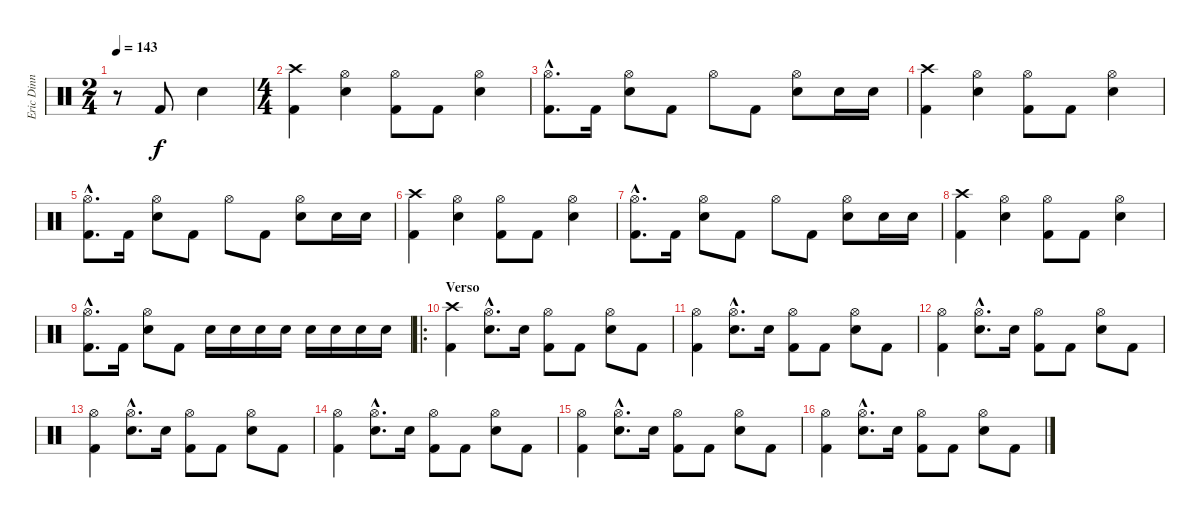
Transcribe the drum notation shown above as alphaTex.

\track ("Eric Dinn" "Eric Dinn") {instrument percussion}
\staff {score}
\articulation defaults
\ts (2 4)
\tempo 143
\clef neutral
\ks c
r.8{dy f} "Kick (hit) 2".8 "Snare (hit) 2".4 |
\ts (4 4)
("Crash high (hit)" "Kick (hit) 2").4 ("Hi-Hat (open)" "Snare (hit) 2").4 ("Hi-Hat (open)" "Kick (hit) 2").8 "Kick (hit) 2".8 ("Hi-Hat (open)" "Snare (hit) 2").4 |
("Hi-Hat (open)"{hac} "Kick (hit) 2"{hac}).8{d} "Kick (hit) 2".16 ("Hi-Hat (open)" "Snare (hit) 2").8 "Kick (hit) 2".8 "Hi-Hat (open)".8 "Kick (hit) 2".8 ("Hi-Hat (open)" "Snare (hit) 2").8 "Snare (hit) 2".16 "Snare (hit) 2".16 |
("Crash high (hit)" "Kick (hit) 2").4 ("Hi-Hat (open)" "Snare (hit) 2").4 ("Hi-Hat (open)" "Kick (hit) 2").8 "Kick (hit) 2".8 ("Hi-Hat (open)" "Snare (hit) 2").4 |
("Hi-Hat (open)"{hac} "Kick (hit) 2"{hac}).8{d} "Kick (hit) 2".16 ("Hi-Hat (open)" "Snare (hit) 2").8 "Kick (hit) 2".8 "Hi-Hat (open)".8 "Kick (hit) 2".8 ("Hi-Hat (open)" "Snare (hit) 2").8 "Snare (hit) 2".16 "Snare (hit) 2".16 |
("Crash high (hit)" "Kick (hit) 2").4 ("Hi-Hat (open)" "Snare (hit) 2").4 ("Hi-Hat (open)" "Kick (hit) 2").8 "Kick (hit) 2".8 ("Hi-Hat (open)" "Snare (hit) 2").4 |
("Hi-Hat (open)"{hac} "Kick (hit) 2"{hac}).8{d} "Kick (hit) 2".16 ("Hi-Hat (open)" "Snare (hit) 2").8 "Kick (hit) 2".8 "Hi-Hat (open)".8 "Kick (hit) 2".8 ("Hi-Hat (open)" "Snare (hit) 2").8 "Snare (hit) 2".16 "Snare (hit) 2".16 |
("Crash high (hit)" "Kick (hit) 2").4 ("Hi-Hat (open)" "Snare (hit) 2").4 ("Hi-Hat (open)" "Kick (hit) 2").8 "Kick (hit) 2".8 ("Hi-Hat (open)" "Snare (hit) 2").4 |
("Hi-Hat (open)"{hac} "Kick (hit) 2"{hac}).8{d} "Kick (hit) 2".16 ("Hi-Hat (open)" "Snare (hit) 2").8 "Kick (hit) 2".8 "Snare (hit) 2".16 "Snare (hit) 2".16 "Snare (hit) 2".16 "Snare (hit) 2".16 "Snare (hit) 2".16 "Snare (hit) 2".16 "Snare (hit) 2".16 "Snare (hit) 2".16 |
\ro
\section ("" "Verso")
("Crash high (hit)" "Kick (hit) 2").4 ("Hi-Hat (open)"{hac} "Snare (hit) 2"{hac}).8{d} "Snare (hit) 2".16 ("Hi-Hat (open)" "Kick (hit) 2").8 "Kick (hit) 2".8 ("Hi-Hat (open)" "Snare (hit) 2").8 "Kick (hit) 2".8 |
("Hi-Hat (open)" "Kick (hit) 2").4 ("Hi-Hat (open)"{hac} "Snare (hit) 2"{hac}).8{d} "Snare (hit) 2".16 ("Hi-Hat (open)" "Kick (hit) 2").8 "Kick (hit) 2".8 ("Hi-Hat (open)" "Snare (hit) 2").8 "Kick (hit) 2".8 |
("Hi-Hat (open)" "Kick (hit) 2").4 ("Hi-Hat (open)"{hac} "Snare (hit) 2"{hac}).8{d} "Snare (hit) 2".16 ("Hi-Hat (open)" "Kick (hit) 2").8 "Kick (hit) 2".8 ("Hi-Hat (open)" "Snare (hit) 2").8 "Kick (hit) 2".8 |
("Hi-Hat (open)" "Kick (hit) 2").4 ("Hi-Hat (open)"{hac} "Snare (hit) 2"{hac}).8{d} "Snare (hit) 2".16 ("Hi-Hat (open)" "Kick (hit) 2").8 "Kick (hit) 2".8 ("Hi-Hat (open)" "Snare (hit) 2").8 "Kick (hit) 2".8 |
("Hi-Hat (open)" "Kick (hit) 2").4 ("Hi-Hat (open)"{hac} "Snare (hit) 2"{hac}).8{d} "Snare (hit) 2".16 ("Hi-Hat (open)" "Kick (hit) 2").8 "Kick (hit) 2".8 ("Hi-Hat (open)" "Snare (hit) 2").8 "Kick (hit) 2".8 |
("Hi-Hat (open)" "Kick (hit) 2").4 ("Hi-Hat (open)"{hac} "Snare (hit) 2"{hac}).8{d} "Snare (hit) 2".16 ("Hi-Hat (open)" "Kick (hit) 2").8 "Kick (hit) 2".8 ("Hi-Hat (open)" "Snare (hit) 2").8 "Kick (hit) 2".8 |
("Hi-Hat (open)" "Kick (hit) 2").4 ("Hi-Hat (open)"{hac} "Snare (hit) 2"{hac}).8{d} "Snare (hit) 2".16 ("Hi-Hat (open)" "Kick (hit) 2").8 "Kick (hit) 2".8 ("Hi-Hat (open)" "Snare (hit) 2").8 "Kick (hit) 2".8
